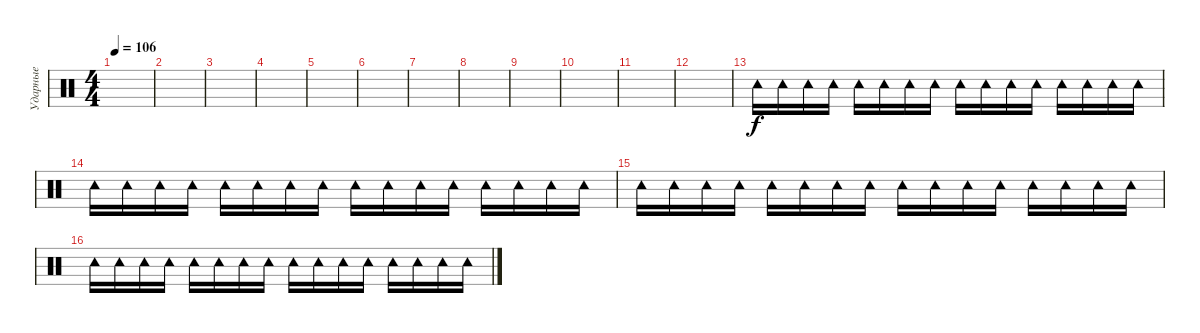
\track ("Ударные" "Ударные") {instrument percussion}
\staff {score}
\articulation defaults
\ts (4 4)
\tempo 106
\clef neutral
\ks c
|
|
|
|
|
|
|
|
|
|
|
|
"Tambourine (hit)".16 "Tambourine (hit)".16 "Tambourine (hit)".16 "Tambourine (hit)".16 "Tambourine (hit)".16 "Tambourine (hit)".16 "Tambourine (hit)".16 "Tambourine (hit)".16 "Tambourine (hit)".16 "Tambourine (hit)".16 "Tambourine (hit)".16 "Tambourine (hit)".16 "Tambourine (hit)".16 "Tambourine (hit)".16 "Tambourine (hit)".16 "Tambourine (hit)".16 |
"Tambourine (hit)".16 "Tambourine (hit)".16 "Tambourine (hit)".16 "Tambourine (hit)".16 "Tambourine (hit)".16 "Tambourine (hit)".16 "Tambourine (hit)".16 "Tambourine (hit)".16 "Tambourine (hit)".16 "Tambourine (hit)".16 "Tambourine (hit)".16 "Tambourine (hit)".16 "Tambourine (hit)".16 "Tambourine (hit)".16 "Tambourine (hit)".16 "Tambourine (hit)".16 |
"Tambourine (hit)".16 "Tambourine (hit)".16 "Tambourine (hit)".16 "Tambourine (hit)".16 "Tambourine (hit)".16 "Tambourine (hit)".16 "Tambourine (hit)".16 "Tambourine (hit)".16 "Tambourine (hit)".16 "Tambourine (hit)".16 "Tambourine (hit)".16 "Tambourine (hit)".16 "Tambourine (hit)".16 "Tambourine (hit)".16 "Tambourine (hit)".16 "Tambourine (hit)".16 |
"Tambourine (hit)".16 "Tambourine (hit)".16 "Tambourine (hit)".16 "Tambourine (hit)".16 "Tambourine (hit)".16 "Tambourine (hit)".16 "Tambourine (hit)".16 "Tambourine (hit)".16 "Tambourine (hit)".16 "Tambourine (hit)".16 "Tambourine (hit)".16 "Tambourine (hit)".16 "Tambourine (hit)".16 "Tambourine (hit)".16 "Tambourine (hit)".16 "Tambourine (hit)".16
